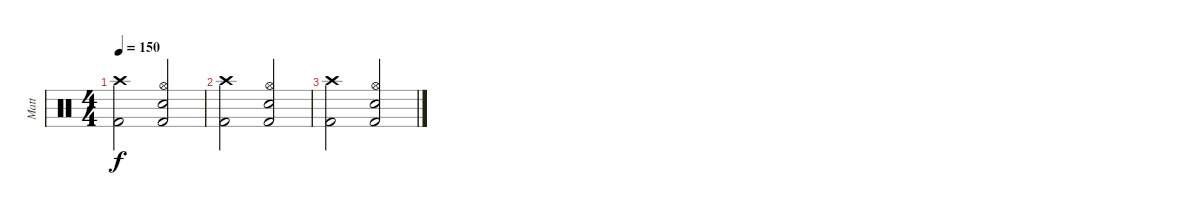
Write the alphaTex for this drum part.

\track ("Matt" "Matt") {instrument percussion}
\staff {score}
\articulation defaults
\ts (4 4)
\tempo 150
\clef neutral
\ks c
("Crash high (hit)" "Kick (hit) 2").2{dy f} ("Hi-Hat (open)" "Snare (hit) 2" "Kick (hit) 2").2 |
("Crash high (hit)" "Kick (hit) 2").2 ("Hi-Hat (open)" "Snare (hit) 2" "Kick (hit) 2").2 |
("Crash high (hit)" "Kick (hit) 2").2 ("Hi-Hat (open)" "Snare (hit) 2" "Kick (hit) 2").2
